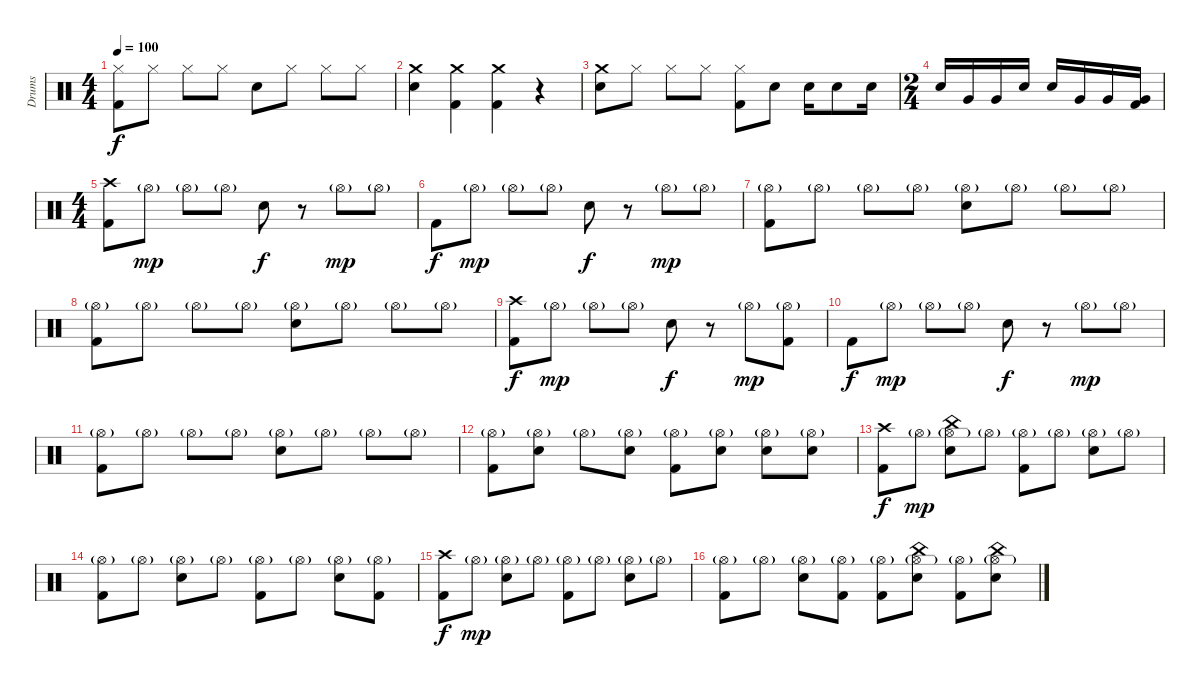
\track ("Drums" "Drums") {instrument percussion}
\staff {score}
\articulation defaults
\ts (4 4)
\tempo 100
\clef neutral
\ks c
("Hi-Hat (closed)" "Kick (hit) 2").8{dy f} "Hi-Hat (closed)".8 "Hi-Hat (closed)".8 "Hi-Hat (closed)".8 "Snare (hit) 2".8 "Hi-Hat (closed)".8 "Hi-Hat (closed)".8 "Hi-Hat (closed)".8 |
("Snare (hit) 2" "Crash medium (hit)").4 ("Crash medium (hit)" "Kick (hit) 2").4 ("Crash medium (hit)" "Kick (hit) 2").4 r.4 |
("Snare (hit) 2" "Crash medium (hit)").8 "Hi-Hat (closed)".8 "Hi-Hat (closed)".8 "Hi-Hat (closed)".8 ("Hi-Hat (closed)" "Kick (hit) 2").8 "Snare (hit) 2".8 "Snare (hit) 2".16 "Snare (hit) 2".8 "Snare (hit) 2".16 |
\ts (2 4)
"Snare (hit) 2".16 "Very Low Tom (hit)".16 "Very Low Tom (hit)".16 "Snare (hit) 2".16 "Snare (hit) 2".16 "Very Low Tom (hit)".16 "Very Low Tom (hit)".16 ("Very Low Tom (hit)" "Kick (hit) 2").16 |
\ts (4 4)
("Crash high (hit)" "Kick (hit) 2").8 "Hi-Hat (open)"{g}.8{dy mp} "Hi-Hat (open)"{g}.8 "Hi-Hat (open)"{g}.8 "Snare (hit) 2".8{dy f} r.8 "Hi-Hat (open)"{g}.8{dy mp} "Hi-Hat (open)"{g}.8 |
"Kick (hit) 2".8{dy f} "Hi-Hat (open)"{g}.8{dy mp} "Hi-Hat (open)"{g}.8 "Hi-Hat (open)"{g}.8 "Snare (hit) 2".8{dy f} r.8 "Hi-Hat (open)"{g}.8{dy mp} "Hi-Hat (open)"{g}.8 |
("Hi-Hat (open)"{g} "Kick (hit) 2").8 "Hi-Hat (open)"{g}.8 "Hi-Hat (open)"{g}.8 "Hi-Hat (open)"{g}.8 ("Snare (hit) 2" "Hi-Hat (open)"{g}).8 "Hi-Hat (open)"{g}.8 "Hi-Hat (open)"{g}.8 "Hi-Hat (open)"{g}.8 |
("Hi-Hat (open)"{g} "Kick (hit) 2").8 "Hi-Hat (open)"{g}.8 "Hi-Hat (open)"{g}.8 "Hi-Hat (open)"{g}.8 ("Snare (hit) 2" "Hi-Hat (open)"{g}).8 "Hi-Hat (open)"{g}.8 "Hi-Hat (open)"{g}.8 "Hi-Hat (open)"{g}.8 |
("Crash high (hit)" "Kick (hit) 2").8{dy f} "Hi-Hat (open)"{g}.8{dy mp} "Hi-Hat (open)"{g}.8 "Hi-Hat (open)"{g}.8 "Snare (hit) 2".8{dy f} r.8 "Hi-Hat (open)"{g}.8{dy mp} ("Hi-Hat (open)"{g} "Kick (hit) 2").8 |
"Kick (hit) 2".8{dy f} "Hi-Hat (open)"{g}.8{dy mp} "Hi-Hat (open)"{g}.8 "Hi-Hat (open)"{g}.8 "Snare (hit) 2".8{dy f} r.8 "Hi-Hat (open)"{g}.8{dy mp} "Hi-Hat (open)"{g}.8 |
("Hi-Hat (open)"{g} "Kick (hit) 2").8 "Hi-Hat (open)"{g}.8 "Hi-Hat (open)"{g}.8 "Hi-Hat (open)"{g}.8 ("Snare (hit) 2" "Hi-Hat (open)"{g}).8 "Hi-Hat (open)"{g}.8 "Hi-Hat (open)"{g}.8 "Hi-Hat (open)"{g}.8 |
("Hi-Hat (open)"{g} "Kick (hit) 2").8 ("Snare (hit) 2" "Hi-Hat (open)"{g}).8 "Hi-Hat (open)"{g}.8 ("Snare (hit) 2" "Hi-Hat (open)"{g}).8 ("Hi-Hat (open)"{g} "Kick (hit) 2").8 ("Snare (hit) 2" "Hi-Hat (open)"{g}).8 ("Snare (hit) 2" "Hi-Hat (open)"{g}).8 ("Snare (hit) 2" "Hi-Hat (open)"{g}).8 |
("Crash high (hit)" "Kick (hit) 2").8{dy f} "Hi-Hat (open)"{g}.8{dy mp} ("Snare (hit) 2" "Hi-Hat (open)"{g} "China (hit)").8 "Hi-Hat (open)"{g}.8 ("Hi-Hat (open)"{g} "Kick (hit) 2").8 "Hi-Hat (open)"{g}.8 ("Snare (hit) 2" "Hi-Hat (open)"{g}).8 "Hi-Hat (open)"{g}.8 |
("Hi-Hat (open)"{g} "Kick (hit) 2").8 "Hi-Hat (open)"{g}.8 ("Snare (hit) 2" "Hi-Hat (open)"{g}).8 "Hi-Hat (open)"{g}.8 ("Hi-Hat (open)"{g} "Kick (hit) 2").8 "Hi-Hat (open)"{g}.8 ("Snare (hit) 2" "Hi-Hat (open)"{g}).8 ("Hi-Hat (open)"{g} "Kick (hit) 2").8 |
("Crash high (hit)" "Kick (hit) 2").8{dy f} "Hi-Hat (open)"{g}.8{dy mp} ("Snare (hit) 2" "Hi-Hat (open)"{g}).8 "Hi-Hat (open)"{g}.8 ("Hi-Hat (open)"{g} "Kick (hit) 2").8 "Hi-Hat (open)"{g}.8 ("Snare (hit) 2" "Hi-Hat (open)"{g}).8 "Hi-Hat (open)"{g}.8 |
("Hi-Hat (open)"{g} "Kick (hit) 2").8 "Hi-Hat (open)"{g}.8 ("Snare (hit) 2" "Hi-Hat (open)"{g}).8 ("Hi-Hat (open)"{g} "Kick (hit) 2").8 ("Hi-Hat (open)"{g} "Kick (hit) 2").8 ("Snare (hit) 2" "Hi-Hat (open)"{g} "China (hit)").8 ("Hi-Hat (open)"{g} "Kick (hit) 2").8 ("Snare (hit) 2" "Hi-Hat (open)"{g} "China (hit)").8
